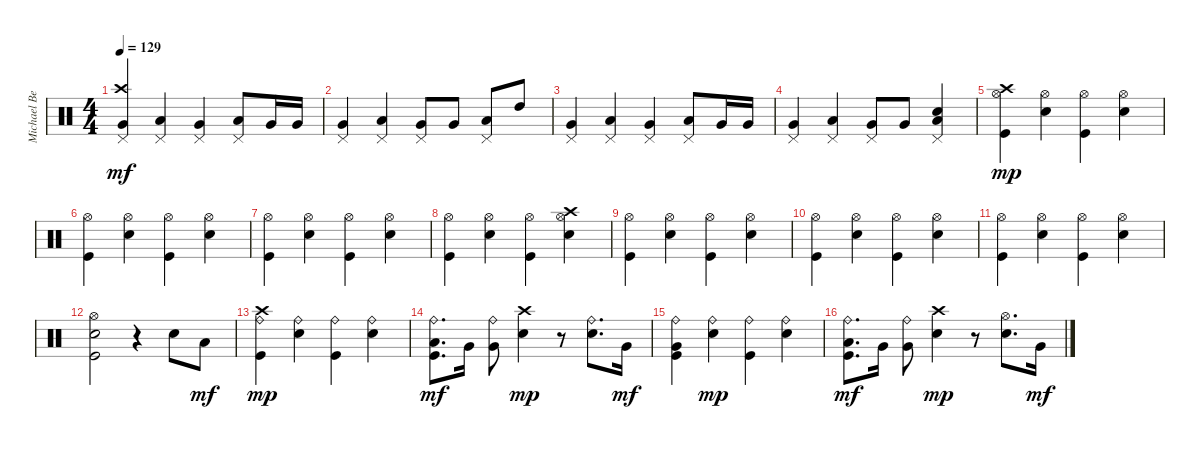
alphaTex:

\track ("Michael Beinham" "Michael Be") {instrument percussion}
\staff {score}
\articulation defaults
\ts (4 4)
\tempo 129
\clef neutral
\ks c
("Pedal Hi-Hat (hit)" "Crash high (hit)" "Very Low Tom (hit)").4{dy mf} ("Pedal Hi-Hat (hit)" "Low Tom (hit)").4 ("Pedal Hi-Hat (hit)" "Very Low Tom (hit)").4 ("Pedal Hi-Hat (hit)" "Low Tom (hit)").8 "Very Low Tom (hit)".16 "Very Low Tom (hit)".16 |
("Pedal Hi-Hat (hit)" "Very Low Tom (hit)").4 ("Pedal Hi-Hat (hit)" "Low Tom (hit)").4 ("Pedal Hi-Hat (hit)" "Very Low Tom (hit)").8 "Very Low Tom (hit)".8 ("Pedal Hi-Hat (hit)" "Low Tom (hit)").8 "High Tom (hit)".8 |
("Pedal Hi-Hat (hit)" "Very Low Tom (hit)").4 ("Pedal Hi-Hat (hit)" "Low Tom (hit)").4 ("Pedal Hi-Hat (hit)" "Very Low Tom (hit)").4 ("Pedal Hi-Hat (hit)" "Low Tom (hit)").8 "Very Low Tom (hit)".16 "Very Low Tom (hit)".16 |
("Pedal Hi-Hat (hit)" "Very Low Tom (hit)").4 ("Pedal Hi-Hat (hit)" "Low Tom (hit)").4 ("Pedal Hi-Hat (hit)" "Very Low Tom (hit)").8 "Very Low Tom (hit)".8 ("Snare (hit) 2" "Pedal Hi-Hat (hit)" "Low Tom (hit)").4 |
("Kick (hit)" "Hi-Hat (open)" "Crash high (hit)").4{dy mp} ("Snare (hit) 2" "Hi-Hat (open)").4 ("Kick (hit)" "Hi-Hat (open)").4 ("Snare (hit) 2" "Hi-Hat (open)").4 |
("Kick (hit)" "Hi-Hat (open)").4 ("Snare (hit) 2" "Hi-Hat (open)").4 ("Kick (hit)" "Hi-Hat (open)").4 ("Snare (hit) 2" "Hi-Hat (open)").4 |
("Kick (hit)" "Hi-Hat (open)").4 ("Snare (hit) 2" "Hi-Hat (open)").4 ("Kick (hit)" "Hi-Hat (open)").4 ("Snare (hit) 2" "Hi-Hat (open)").4 |
("Kick (hit)" "Hi-Hat (open)").4 ("Snare (hit) 2" "Hi-Hat (open)").4 ("Kick (hit)" "Hi-Hat (open)").4 ("Snare (hit) 2" "Hi-Hat (open)" "Crash high (hit)").4 |
("Kick (hit)" "Hi-Hat (open)").4 ("Snare (hit) 2" "Hi-Hat (open)").4 ("Kick (hit)" "Hi-Hat (open)").4 ("Snare (hit) 2" "Hi-Hat (open)").4 |
("Kick (hit)" "Hi-Hat (open)").4 ("Snare (hit) 2" "Hi-Hat (open)").4 ("Kick (hit)" "Hi-Hat (open)").4 ("Snare (hit) 2" "Hi-Hat (open)").4 |
("Kick (hit)" "Hi-Hat (open)").4 ("Snare (hit) 2" "Hi-Hat (open)").4 ("Kick (hit)" "Hi-Hat (open)").4 ("Snare (hit) 2" "Hi-Hat (open)").4 |
("Kick (hit)" "Snare (hit) 2" "Hi-Hat (open)").2 r.4 "Snare (hit) 2".8 "Low Tom (hit)".8{dy mf} |
("Kick (hit)" "Ride (bell)" "Crash high (hit)").4{dy mp} ("Snare (hit) 2" "Ride (bell)").4 ("Kick (hit)" "Ride (bell)").4 ("Snare (hit) 2" "Ride (bell)").4 |
("Kick (hit)" "Ride (bell)" "Low Tom (hit)").8{d dy mf} "Very Low Tom (hit)".16 ("Ride (bell)" "Very Low Tom (hit)").8 ("Snare (hit) 2" "Crash high (hit)").4{dy mp} r.8 ("Snare (hit) 2" "Ride (bell)").8{d} "Very Low Tom (hit)".16{dy mf} |
("Kick (hit)" "Ride (bell)" "Very Low Tom (hit)").4 ("Snare (hit) 2" "Ride (bell)").4{dy mp} ("Kick (hit)" "Ride (bell)").4 ("Snare (hit) 2" "Ride (bell)").4 |
("Kick (hit)" "Ride (bell)" "Low Tom (hit)").8{d dy mf} "Very Low Tom (hit)".16 ("Ride (bell)" "Very Low Tom (hit)").8 ("Snare (hit) 2" "Crash high (hit)").4{dy mp} r.8 ("Snare (hit) 2" "Hi-Hat (open)").8{d} "Very Low Tom (hit)".16{dy mf}
